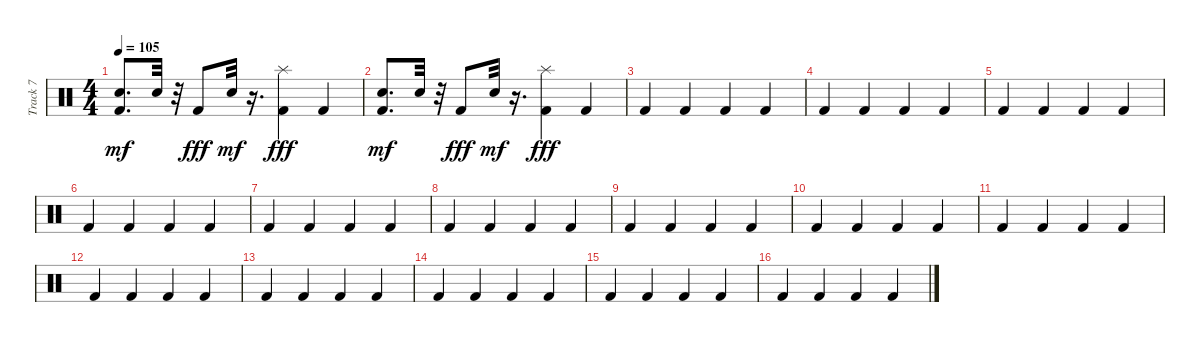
\track ("Track 7" "Track 7") {instrument percussion}
\staff {score}
\articulation defaults
\ts (4 4)
\tempo 105
\clef neutral
\ks c
("Kick (hit) 2" "Snare (hit) 2").8{d dy mf} "Snare (hit) 2".32 r.32 "Kick (hit) 2".8{dy fff} "Snare (hit) 2".32{dy mf} r.16{d} ("Kick (hit) 2" "Splash (hit)").4{dy fff} "Kick (hit) 2".4 |
("Kick (hit) 2" "Snare (hit) 2").8{d dy mf} "Snare (hit) 2".32 r.32 "Kick (hit) 2".8{dy fff} "Snare (hit) 2".32{dy mf} r.16{d} ("Kick (hit) 2" "Splash (hit)").4{dy fff} "Kick (hit) 2".4 |
"Kick (hit) 2".4 "Kick (hit) 2".4 "Kick (hit) 2".4 "Kick (hit) 2".4 |
"Kick (hit) 2".4 "Kick (hit) 2".4 "Kick (hit) 2".4 "Kick (hit) 2".4 |
"Kick (hit) 2".4 "Kick (hit) 2".4 "Kick (hit) 2".4 "Kick (hit) 2".4 |
"Kick (hit) 2".4 "Kick (hit) 2".4 "Kick (hit) 2".4 "Kick (hit) 2".4 |
"Kick (hit) 2".4 "Kick (hit) 2".4 "Kick (hit) 2".4 "Kick (hit) 2".4 |
"Kick (hit) 2".4 "Kick (hit) 2".4 "Kick (hit) 2".4 "Kick (hit) 2".4 |
"Kick (hit) 2".4 "Kick (hit) 2".4 "Kick (hit) 2".4 "Kick (hit) 2".4 |
"Kick (hit) 2".4 "Kick (hit) 2".4 "Kick (hit) 2".4 "Kick (hit) 2".4 |
"Kick (hit) 2".4 "Kick (hit) 2".4 "Kick (hit) 2".4 "Kick (hit) 2".4 |
"Kick (hit) 2".4 "Kick (hit) 2".4 "Kick (hit) 2".4 "Kick (hit) 2".4 |
"Kick (hit) 2".4 "Kick (hit) 2".4 "Kick (hit) 2".4 "Kick (hit) 2".4 |
"Kick (hit) 2".4 "Kick (hit) 2".4 "Kick (hit) 2".4 "Kick (hit) 2".4 |
"Kick (hit) 2".4 "Kick (hit) 2".4 "Kick (hit) 2".4 "Kick (hit) 2".4 |
"Kick (hit) 2".4 "Kick (hit) 2".4 "Kick (hit) 2".4 "Kick (hit) 2".4
